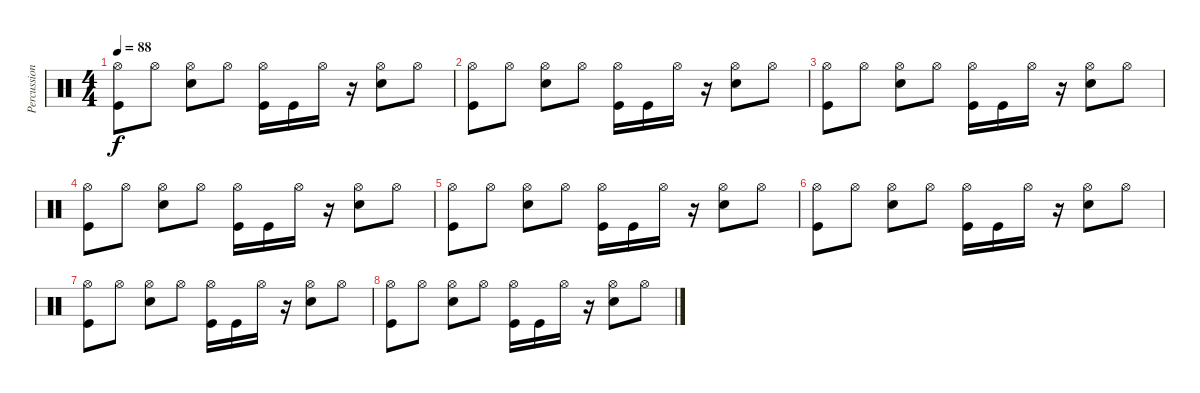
\track ("Percussion" "Percussion") {instrument percussion}
\staff {score}
\articulation defaults
\ts (4 4)
\tempo 88
\clef neutral
\ks c
("Hi-Hat (open)" "Kick (hit)").8{dy f} "Hi-Hat (open)".8 ("Hi-Hat (open)" "Snare (hit) 2").8 "Hi-Hat (open)".8 ("Hi-Hat (open)" "Kick (hit)").16 "Kick (hit)".16 "Hi-Hat (open)".16 r.16 ("Hi-Hat (open)" "Snare (hit) 2").8 "Hi-Hat (open)".8 |
("Hi-Hat (open)" "Kick (hit)").8 "Hi-Hat (open)".8 ("Hi-Hat (open)" "Snare (hit) 2").8 "Hi-Hat (open)".8 ("Hi-Hat (open)" "Kick (hit)").16 "Kick (hit)".16 "Hi-Hat (open)".16 r.16 ("Hi-Hat (open)" "Snare (hit) 2").8 "Hi-Hat (open)".8 |
("Hi-Hat (open)" "Kick (hit)").8 "Hi-Hat (open)".8 ("Hi-Hat (open)" "Snare (hit) 2").8 "Hi-Hat (open)".8 ("Hi-Hat (open)" "Kick (hit)").16 "Kick (hit)".16 "Hi-Hat (open)".16 r.16 ("Hi-Hat (open)" "Snare (hit) 2").8 "Hi-Hat (open)".8 |
("Hi-Hat (open)" "Kick (hit)").8 "Hi-Hat (open)".8 ("Hi-Hat (open)" "Snare (hit) 2").8 "Hi-Hat (open)".8 ("Hi-Hat (open)" "Kick (hit)").16 "Kick (hit)".16 "Hi-Hat (open)".16 r.16 ("Hi-Hat (open)" "Snare (hit) 2").8 "Hi-Hat (open)".8 |
("Hi-Hat (open)" "Kick (hit)").8 "Hi-Hat (open)".8 ("Hi-Hat (open)" "Snare (hit) 2").8 "Hi-Hat (open)".8 ("Hi-Hat (open)" "Kick (hit)").16 "Kick (hit)".16 "Hi-Hat (open)".16 r.16 ("Hi-Hat (open)" "Snare (hit) 2").8 "Hi-Hat (open)".8 |
("Hi-Hat (open)" "Kick (hit)").8 "Hi-Hat (open)".8 ("Hi-Hat (open)" "Snare (hit) 2").8 "Hi-Hat (open)".8 ("Hi-Hat (open)" "Kick (hit)").16 "Kick (hit)".16 "Hi-Hat (open)".16 r.16 ("Hi-Hat (open)" "Snare (hit) 2").8 "Hi-Hat (open)".8 |
("Hi-Hat (open)" "Kick (hit)").8 "Hi-Hat (open)".8 ("Hi-Hat (open)" "Snare (hit) 2").8 "Hi-Hat (open)".8 ("Hi-Hat (open)" "Kick (hit)").16 "Kick (hit)".16 "Hi-Hat (open)".16 r.16 ("Hi-Hat (open)" "Snare (hit) 2").8 "Hi-Hat (open)".8 |
("Hi-Hat (open)" "Kick (hit)").8 "Hi-Hat (open)".8 ("Hi-Hat (open)" "Snare (hit) 2").8 "Hi-Hat (open)".8 ("Hi-Hat (open)" "Kick (hit)").16 "Kick (hit)".16 "Hi-Hat (open)".16 r.16 ("Hi-Hat (open)" "Snare (hit) 2").8 "Hi-Hat (open)".8
